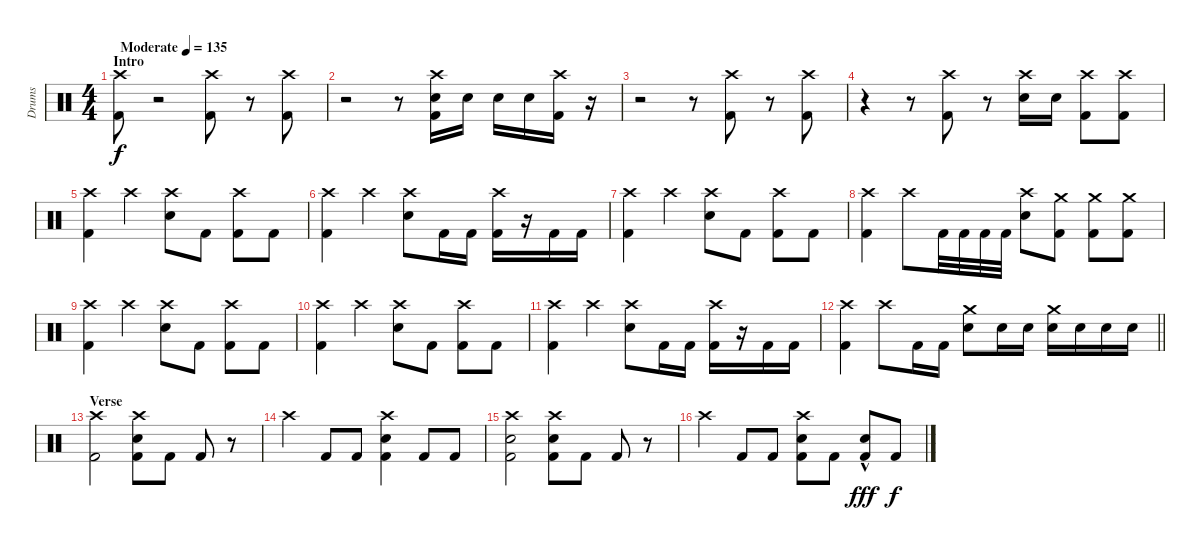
\track ("Drums" "Drums") {instrument percussion}
\staff {score}
\articulation defaults
\ts (4 4)
\section ("" "Intro")
\tempo (135 "Moderate")
\clef neutral
\ks c
("Crash high (hit)" "Kick (hit) 2").8{dy f} r.2 ("Crash high (hit)" "Kick (hit) 2").8 r.8 ("Crash high (hit)" "Kick (hit) 2").8 |
r.2 r.8 ("Crash high (hit)" "Electric Snare (hit)" "Kick (hit) 2").16 "Electric Snare (hit)".16 "Electric Snare (hit)".16 "Electric Snare (hit)".16 ("Crash high (hit)" "Kick (hit) 2").16 r.16 |
r.2 r.8 ("Crash high (hit)" "Kick (hit) 2").8 r.8 ("Crash high (hit)" "Kick (hit) 2").8 |
r.4 r.8 ("Crash high (hit)" "Kick (hit) 2").8 r.8 ("Crash high (hit)" "Electric Snare (hit)").16 "Electric Snare (hit)".16 ("Crash high (hit)" "Kick (hit) 2").8 ("Crash high (hit)" "Kick (hit) 2").8 |
("Crash high (hit)" "Kick (hit) 2").4 "Crash high (hit)".4 ("Crash high (hit)" "Electric Snare (hit)").8 "Kick (hit) 2".8 ("Crash high (hit)" "Kick (hit) 2").8 "Kick (hit) 2".8 |
("Crash high (hit)" "Kick (hit) 2").4 "Crash high (hit)".4 ("Crash high (hit)" "Electric Snare (hit)").8 "Kick (hit) 2".16 "Kick (hit) 2".16 ("Crash high (hit)" "Kick (hit) 2").16 r.16 "Kick (hit) 2".16 "Kick (hit) 2".16 |
("Crash high (hit)" "Kick (hit) 2").4 "Crash high (hit)".4 ("Crash high (hit)" "Electric Snare (hit)").8 "Kick (hit) 2".8 ("Crash high (hit)" "Kick (hit) 2").8 "Kick (hit) 2".8 |
("Crash high (hit)" "Kick (hit) 2").4 "Crash high (hit)".8 "Kick (hit) 2".32 "Kick (hit) 2".32 "Kick (hit) 2".32 "Kick (hit) 2".32 ("Crash high (hit)" "Electric Snare (hit)").8 ("Crash medium (hit)" "Kick (hit) 2").8 ("Crash medium (hit)" "Kick (hit) 2").8 ("Crash medium (hit)" "Kick (hit) 2").8 |
("Crash high (hit)" "Kick (hit) 2").4 "Crash high (hit)".4 ("Crash high (hit)" "Electric Snare (hit)").8 "Kick (hit) 2".8 ("Crash high (hit)" "Kick (hit) 2").8 "Kick (hit) 2".8 |
("Crash high (hit)" "Kick (hit) 2").4 "Crash high (hit)".4 ("Crash high (hit)" "Electric Snare (hit)").8 "Kick (hit) 2".8 ("Crash high (hit)" "Kick (hit) 2").8 "Kick (hit) 2".8 |
("Crash high (hit)" "Kick (hit) 2").4 "Crash high (hit)".4 ("Crash high (hit)" "Electric Snare (hit)").8 "Kick (hit) 2".16 "Kick (hit) 2".16 ("Crash high (hit)" "Kick (hit) 2").16 r.16 "Kick (hit) 2".16 "Kick (hit) 2".16 |
\barLineRight lightlight
("Crash high (hit)" "Kick (hit) 2").4 "Crash high (hit)".8 "Kick (hit) 2".16 "Kick (hit) 2".16 ("Crash medium (hit)" "Electric Snare (hit)").8 "Electric Snare (hit)".16 "Electric Snare (hit)".16 ("Crash medium (hit)" "Electric Snare (hit)").16 "Electric Snare (hit)".16 "Electric Snare (hit)".16 "Electric Snare (hit)".16 |
\section ("" "Verse ")
("Crash high (hit)" "Kick (hit) 2").2 ("Crash high (hit)" "Electric Snare (hit)" "Kick (hit) 2").8 "Kick (hit) 2".8 "Kick (hit) 2".8 r.8 |
"Crash high (hit)".4 "Kick (hit) 2".8 "Kick (hit) 2".8 ("Crash high (hit)" "Electric Snare (hit)" "Kick (hit) 2").4 "Kick (hit) 2".8 "Kick (hit) 2".8 |
("Crash high (hit)" "Electric Snare (hit)" "Kick (hit) 2").2 ("Crash high (hit)" "Electric Snare (hit)" "Kick (hit) 2").8 "Kick (hit) 2".8 "Kick (hit) 2".8 r.8 |
"Crash high (hit)".4 "Kick (hit) 2".8 "Kick (hit) 2".8 ("Crash high (hit)" "Electric Snare (hit)" "Kick (hit) 2").8 "Kick (hit) 2".8 ("Electric Snare (hit)"{hac} "Kick (hit) 2").8{dy fff} "Kick (hit) 2".8{dy f}
